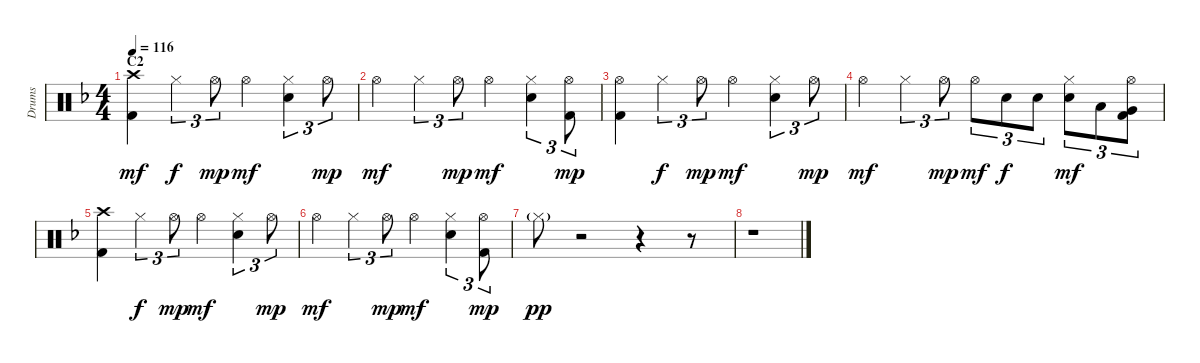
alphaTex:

\track ("Drums" "Drums") {instrument percussion}
\staff {score}
\articulation defaults
\ts (4 4)
\section ("" "C2")
\tempo 116
\clef neutral
\ks f
("Crash high (hit)" "Kick (hit) 2").4{dy mf} "Hi-Hat (closed)".4{tu (3 2) dy f} "Hi-Hat (open)".8{tu (3 2) dy mp} "Hi-Hat (open)".4{dy mf} ("Hi-Hat (closed)" "Snare (hit) 2").4{tu (3 2)} "Hi-Hat (open)".8{tu (3 2) dy mp} |
"Hi-Hat (open)".4{dy mf} "Hi-Hat (closed)".4{tu (3 2)} "Hi-Hat (open)".8{tu (3 2) dy mp} "Hi-Hat (open)".4{dy mf} ("Hi-Hat (closed)" "Snare (hit) 2").4{tu (3 2)} ("Hi-Hat (open)" "Kick (hit) 2").8{tu (3 2) dy mp} |
("Hi-Hat (open)" "Kick (hit) 2").4 "Hi-Hat (closed)".4{tu (3 2) dy f} "Hi-Hat (open)".8{tu (3 2) dy mp} "Hi-Hat (open)".4{dy mf} ("Hi-Hat (closed)" "Snare (hit) 2").4{tu (3 2)} "Hi-Hat (open)".8{tu (3 2) dy mp} |
"Hi-Hat (open)".4{dy mf} "Hi-Hat (closed)".4{tu (3 2)} "Hi-Hat (open)".8{tu (3 2) dy mp} "Hi-Hat (open)".8{tu (3 2) dy mf} "Snare (hit) 2".8{tu (3 2) dy f} "Snare (hit) 2".8{tu (3 2)} ("Hi-Hat (closed)" "Snare (hit) 2").8{tu (3 2) dy mf} "Low Tom (hit)".8{tu (3 2)} ("Hi-Hat (open)" "Very Low Tom (hit)" "Kick (hit) 2").8{tu (3 2)} |
("Crash high (hit)" "Kick (hit) 2").4 "Hi-Hat (closed)".4{tu (3 2) dy f} "Hi-Hat (open)".8{tu (3 2) dy mp} "Hi-Hat (open)".4{dy mf} ("Hi-Hat (closed)" "Snare (hit) 2").4{tu (3 2)} "Hi-Hat (open)".8{tu (3 2) dy mp} |
"Hi-Hat (open)".4{dy mf} "Hi-Hat (closed)".4{tu (3 2)} "Hi-Hat (open)".8{tu (3 2) dy mp} "Hi-Hat (open)".4{dy mf} ("Hi-Hat (closed)" "Snare (hit) 2").4{tu (3 2)} ("Hi-Hat (open)" "Kick (hit) 2").8{tu (3 2) dy mp} |
"Hi-Hat (closed)"{g}.8{dy pp} r.2 r.4 r.8 |
r.1
